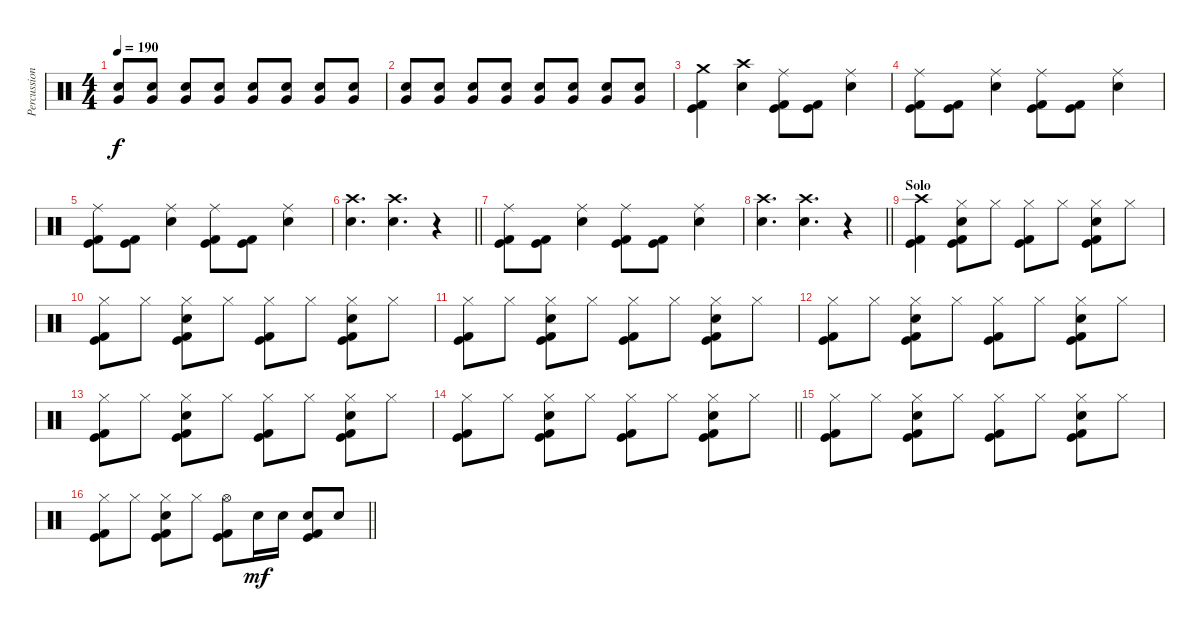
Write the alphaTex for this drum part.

\track ("Percussion" "Percussion") {instrument percussion}
\staff {score}
\articulation defaults
\ts (4 4)
\tempo 190
\clef neutral
\ks c
("Very Low Tom (hit)" "Electric Snare (hit)").8{dy f} ("Very Low Tom (hit)" "Electric Snare (hit)").8 ("Very Low Tom (hit)" "Electric Snare (hit)").8 ("Very Low Tom (hit)" "Electric Snare (hit)").8 ("Very Low Tom (hit)" "Electric Snare (hit)").8 ("Very Low Tom (hit)" "Electric Snare (hit)").8 ("Very Low Tom (hit)" "Electric Snare (hit)").8 ("Very Low Tom (hit)" "Electric Snare (hit)").8 |
("Very Low Tom (hit)" "Electric Snare (hit)").8 ("Very Low Tom (hit)" "Electric Snare (hit)").8 ("Very Low Tom (hit)" "Electric Snare (hit)").8 ("Very Low Tom (hit)" "Electric Snare (hit)").8 ("Very Low Tom (hit)" "Electric Snare (hit)").8 ("Very Low Tom (hit)" "Electric Snare (hit)").8 ("Very Low Tom (hit)" "Electric Snare (hit)").8 ("Very Low Tom (hit)" "Electric Snare (hit)").8 |
("Crash medium (hit)" "Kick (hit)" "Kick (hit) 2").4 ("Crash high (hit)" "Electric Snare (hit)").4 ("Ride (middle)" "Kick (hit)" "Kick (hit) 2").8 ("Kick (hit)" "Kick (hit) 2").8 ("Ride (middle)" "Electric Snare (hit)").4 |
("Ride (middle)" "Kick (hit)" "Kick (hit) 2").8 ("Kick (hit)" "Kick (hit) 2").8 ("Ride (middle)" "Electric Snare (hit)").4 ("Ride (middle)" "Kick (hit)" "Kick (hit) 2").8 ("Kick (hit)" "Kick (hit) 2").8 ("Ride (middle)" "Electric Snare (hit)").4 |
("Ride (middle)" "Kick (hit)" "Kick (hit) 2").8 ("Kick (hit)" "Kick (hit) 2").8 ("Ride (middle)" "Electric Snare (hit)").4 ("Ride (middle)" "Kick (hit)" "Kick (hit) 2").8 ("Kick (hit)" "Kick (hit) 2").8 ("Ride (middle)" "Electric Snare (hit)").4 |
\barLineRight lightlight
("Crash high (hit)" "Electric Snare (hit)").4{d} ("Crash high (hit)" "Electric Snare (hit)").4{d} r.4 |
("Ride (middle)" "Kick (hit)" "Kick (hit) 2").8 ("Kick (hit)" "Kick (hit) 2").8 ("Ride (middle)" "Electric Snare (hit)").4 ("Ride (middle)" "Kick (hit)" "Kick (hit) 2").8 ("Kick (hit)" "Kick (hit) 2").8 ("Ride (middle)" "Electric Snare (hit)").4 |
\barLineRight lightlight
("Crash high (hit)" "Electric Snare (hit)").4{d} ("Crash high (hit)" "Electric Snare (hit)").4{d} r.4 |
\section ("" "Solo")
("Crash high (hit)" "Kick (hit)" "Kick (hit) 2").4 ("Hi-Hat (closed)" "Electric Snare (hit)" "Kick (hit)" "Kick (hit) 2").8 "Hi-Hat (closed)".8 ("Hi-Hat (closed)" "Kick (hit)" "Kick (hit) 2").8 "Hi-Hat (closed)".8 ("Hi-Hat (closed)" "Electric Snare (hit)" "Kick (hit)" "Kick (hit) 2").8 "Hi-Hat (closed)".8 |
("Hi-Hat (closed)" "Kick (hit)" "Kick (hit) 2").8 "Hi-Hat (closed)".8 ("Hi-Hat (closed)" "Electric Snare (hit)" "Kick (hit)" "Kick (hit) 2").8 "Hi-Hat (closed)".8 ("Hi-Hat (closed)" "Kick (hit)" "Kick (hit) 2").8 "Hi-Hat (closed)".8 ("Hi-Hat (closed)" "Electric Snare (hit)" "Kick (hit)" "Kick (hit) 2").8 "Hi-Hat (closed)".8 |
("Hi-Hat (closed)" "Kick (hit)" "Kick (hit) 2").8 "Hi-Hat (closed)".8 ("Hi-Hat (closed)" "Electric Snare (hit)" "Kick (hit)" "Kick (hit) 2").8 "Hi-Hat (closed)".8 ("Hi-Hat (closed)" "Kick (hit)" "Kick (hit) 2").8 "Hi-Hat (closed)".8 ("Hi-Hat (closed)" "Electric Snare (hit)" "Kick (hit)" "Kick (hit) 2").8 "Hi-Hat (closed)".8 |
("Hi-Hat (closed)" "Kick (hit)" "Kick (hit) 2").8 "Hi-Hat (closed)".8 ("Hi-Hat (closed)" "Electric Snare (hit)" "Kick (hit)" "Kick (hit) 2").8 "Hi-Hat (closed)".8 ("Hi-Hat (closed)" "Kick (hit)" "Kick (hit) 2").8 "Hi-Hat (closed)".8 ("Hi-Hat (closed)" "Electric Snare (hit)" "Kick (hit)" "Kick (hit) 2").8 "Hi-Hat (closed)".8 |
("Hi-Hat (closed)" "Kick (hit)" "Kick (hit) 2").8 "Hi-Hat (closed)".8 ("Hi-Hat (closed)" "Electric Snare (hit)" "Kick (hit)" "Kick (hit) 2").8 "Hi-Hat (closed)".8 ("Hi-Hat (closed)" "Kick (hit)" "Kick (hit) 2").8 "Hi-Hat (closed)".8 ("Hi-Hat (closed)" "Electric Snare (hit)" "Kick (hit)" "Kick (hit) 2").8 "Hi-Hat (closed)".8 |
\barLineRight lightlight
("Hi-Hat (closed)" "Kick (hit)" "Kick (hit) 2").8 "Hi-Hat (closed)".8 ("Hi-Hat (closed)" "Electric Snare (hit)" "Kick (hit)" "Kick (hit) 2").8 "Hi-Hat (closed)".8 ("Hi-Hat (closed)" "Kick (hit)" "Kick (hit) 2").8 "Hi-Hat (closed)".8 ("Hi-Hat (closed)" "Electric Snare (hit)" "Kick (hit)" "Kick (hit) 2").8 "Hi-Hat (closed)".8 |
("Hi-Hat (closed)" "Kick (hit)" "Kick (hit) 2").8 "Hi-Hat (closed)".8 ("Hi-Hat (closed)" "Electric Snare (hit)" "Kick (hit)" "Kick (hit) 2").8 "Hi-Hat (closed)".8 ("Hi-Hat (closed)" "Kick (hit)" "Kick (hit) 2").8 "Hi-Hat (closed)".8 ("Hi-Hat (closed)" "Electric Snare (hit)" "Kick (hit)" "Kick (hit) 2").8 "Hi-Hat (closed)".8 |
\barLineRight lightlight
("Hi-Hat (closed)" "Kick (hit)" "Kick (hit) 2").8 "Hi-Hat (closed)".8 ("Hi-Hat (closed)" "Electric Snare (hit)" "Kick (hit)" "Kick (hit) 2").8 "Hi-Hat (closed)".8 ("Hi-Hat (open)" "Kick (hit)" "Kick (hit) 2").8 "Electric Snare (hit)".16{dy mf} "Electric Snare (hit)".16 ("Electric Snare (hit)" "Kick (hit)" "Kick (hit) 2").8 "Electric Snare (hit)".8
